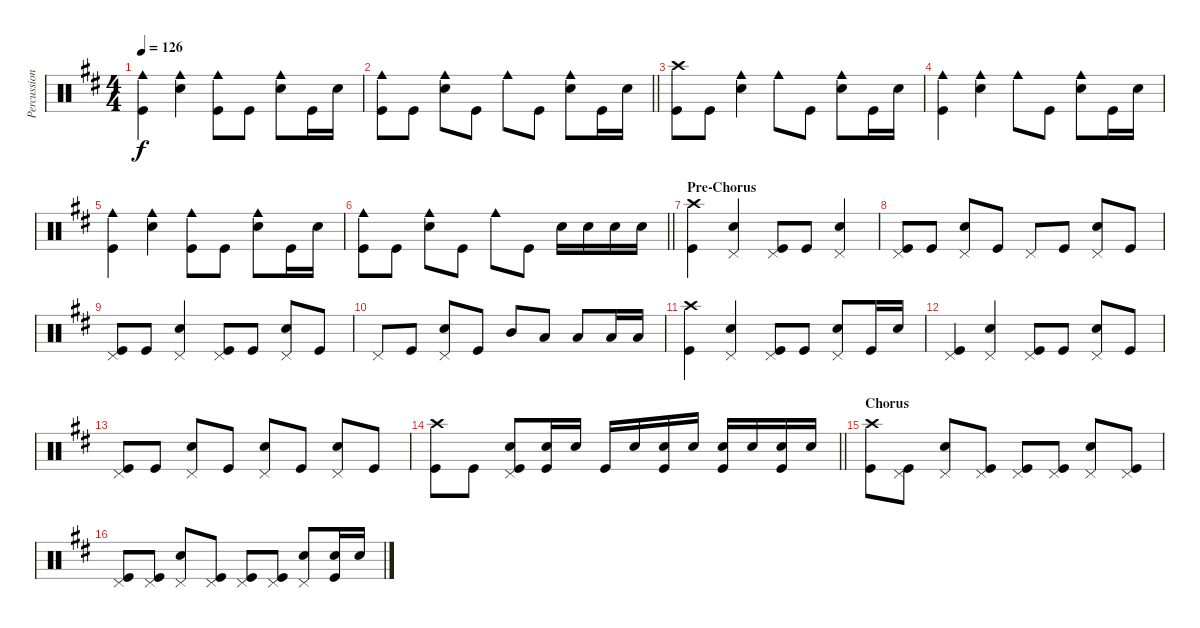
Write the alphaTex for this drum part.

\track ("Percussion" "Percussion") {instrument percussion}
\staff {score}
\articulation defaults
\ts (4 4)
\tempo 126
\clef neutral
\ks d
("Cowbell medium (hit)" "Kick (hit)").4{dy f} ("Cowbell medium (hit)" "Snare (hit) 2").4 ("Cowbell medium (hit)" "Kick (hit)").8 "Kick (hit)".8 ("Cowbell medium (hit)" "Snare (hit) 2").8 "Kick (hit)".16 "Snare (hit) 2".16 |
\barLineRight lightlight
("Cowbell medium (hit)" "Kick (hit)").8 "Kick (hit)".8 ("Cowbell medium (hit)" "Snare (hit) 2").8 "Kick (hit)".8 "Cowbell medium (hit)".8 "Kick (hit)".8 ("Cowbell medium (hit)" "Snare (hit) 2").8 "Kick (hit)".16 "Snare (hit) 2".16 |
("Crash high (hit)" "Kick (hit)").8 "Kick (hit)".8 ("Cowbell medium (hit)" "Snare (hit) 2").4 "Cowbell medium (hit)".8 "Kick (hit)".8 ("Cowbell medium (hit)" "Snare (hit) 2").8 "Kick (hit)".16 "Snare (hit) 2".16 |
("Cowbell medium (hit)" "Kick (hit)").4 ("Cowbell medium (hit)" "Snare (hit) 2").4 "Cowbell medium (hit)".8 "Kick (hit)".8 ("Cowbell medium (hit)" "Snare (hit) 2").8 "Kick (hit)".16 "Snare (hit) 2".16 |
("Cowbell medium (hit)" "Kick (hit)").4 ("Cowbell medium (hit)" "Snare (hit) 2").4 ("Cowbell medium (hit)" "Kick (hit)").8 "Kick (hit)".8 ("Cowbell medium (hit)" "Snare (hit) 2").8 "Kick (hit)".16 "Snare (hit) 2".16 |
\barLineRight lightlight
("Cowbell medium (hit)" "Kick (hit)").8 "Kick (hit)".8 ("Cowbell medium (hit)" "Snare (hit) 2").8 "Kick (hit)".8 "Cowbell medium (hit)".8 "Kick (hit)".8 "Snare (hit) 2".16 "Snare (hit) 2".16 "Snare (hit) 2".16 "Snare (hit) 2".16 |
\section ("" "Pre-Chorus")
("Crash high (hit)" "Kick (hit)").4 ("Pedal Hi-Hat (hit)" "Snare (hit) 2").4 ("Pedal Hi-Hat (hit)" "Kick (hit)").8 "Kick (hit)".8 ("Pedal Hi-Hat (hit)" "Snare (hit) 2").4 |
("Pedal Hi-Hat (hit)" "Kick (hit)").8 "Kick (hit)".8 ("Pedal Hi-Hat (hit)" "Snare (hit) 2").8 "Kick (hit)".8 "Pedal Hi-Hat (hit)".8 "Kick (hit)".8 ("Pedal Hi-Hat (hit)" "Snare (hit) 2").8 "Kick (hit)".8 |
("Pedal Hi-Hat (hit)" "Kick (hit)").8 "Kick (hit)".8 ("Pedal Hi-Hat (hit)" "Snare (hit) 2").4 ("Pedal Hi-Hat (hit)" "Kick (hit)").8 "Kick (hit)".8 ("Pedal Hi-Hat (hit)" "Snare (hit) 2").8 "Kick (hit)".8 |
"Pedal Hi-Hat (hit)".8 "Kick (hit)".8 ("Pedal Hi-Hat (hit)" "Snare (hit) 2").8 "Kick (hit)".8 "Mid Tom (hit)".8 "Low Tom (hit)".8 "Low Tom (hit)".8 "Low Tom (hit)".16 "Low Tom (hit)".16 |
("Crash high (hit)" "Kick (hit)").4 ("Pedal Hi-Hat (hit)" "Snare (hit) 2").4 ("Pedal Hi-Hat (hit)" "Kick (hit)").8 "Kick (hit)".8 ("Pedal Hi-Hat (hit)" "Snare (hit) 2").8 "Kick (hit)".16 "Snare (hit) 2".16 |
("Pedal Hi-Hat (hit)" "Kick (hit)").4 ("Pedal Hi-Hat (hit)" "Snare (hit) 2").4 ("Pedal Hi-Hat (hit)" "Kick (hit)").8 "Kick (hit)".8 ("Pedal Hi-Hat (hit)" "Snare (hit) 2").8 "Kick (hit)".8 |
("Pedal Hi-Hat (hit)" "Kick (hit)").8 "Kick (hit)".8 ("Pedal Hi-Hat (hit)" "Snare (hit) 2").8 "Kick (hit)".8 ("Pedal Hi-Hat (hit)" "Snare (hit) 2").8 "Kick (hit)".8 ("Pedal Hi-Hat (hit)" "Snare (hit) 2").8 "Kick (hit)".8 |
\barLineRight lightlight
("Crash high (hit)" "Kick (hit)").8 "Kick (hit)".8 ("Pedal Hi-Hat (hit)" "Snare (hit) 2" "Kick (hit)").8 ("Snare (hit) 2" "Kick (hit)").16 "Snare (hit) 2".16 "Kick (hit)".16 "Snare (hit) 2".16 ("Snare (hit) 2" "Kick (hit)").16 "Snare (hit) 2".16 ("Snare (hit) 2" "Kick (hit)").16 "Snare (hit) 2".16 ("Snare (hit) 2" "Kick (hit)").16 "Snare (hit) 2".16 |
\section ("" "Chorus")
("Crash high (hit)" "Kick (hit)").8 ("Pedal Hi-Hat (hit)" "Kick (hit)").8 ("Pedal Hi-Hat (hit)" "Snare (hit) 2").8 ("Pedal Hi-Hat (hit)" "Kick (hit)").8 ("Pedal Hi-Hat (hit)" "Kick (hit)").8 ("Pedal Hi-Hat (hit)" "Kick (hit)").8 ("Pedal Hi-Hat (hit)" "Snare (hit) 2").8 ("Pedal Hi-Hat (hit)" "Kick (hit)").8 |
("Pedal Hi-Hat (hit)" "Kick (hit)").8 ("Pedal Hi-Hat (hit)" "Kick (hit)").8 ("Pedal Hi-Hat (hit)" "Snare (hit) 2").8 ("Pedal Hi-Hat (hit)" "Kick (hit)").8 ("Pedal Hi-Hat (hit)" "Kick (hit)").8 ("Pedal Hi-Hat (hit)" "Kick (hit)").8 ("Pedal Hi-Hat (hit)" "Snare (hit) 2").8 ("Snare (hit) 2" "Kick (hit)").16 "Snare (hit) 2".16
